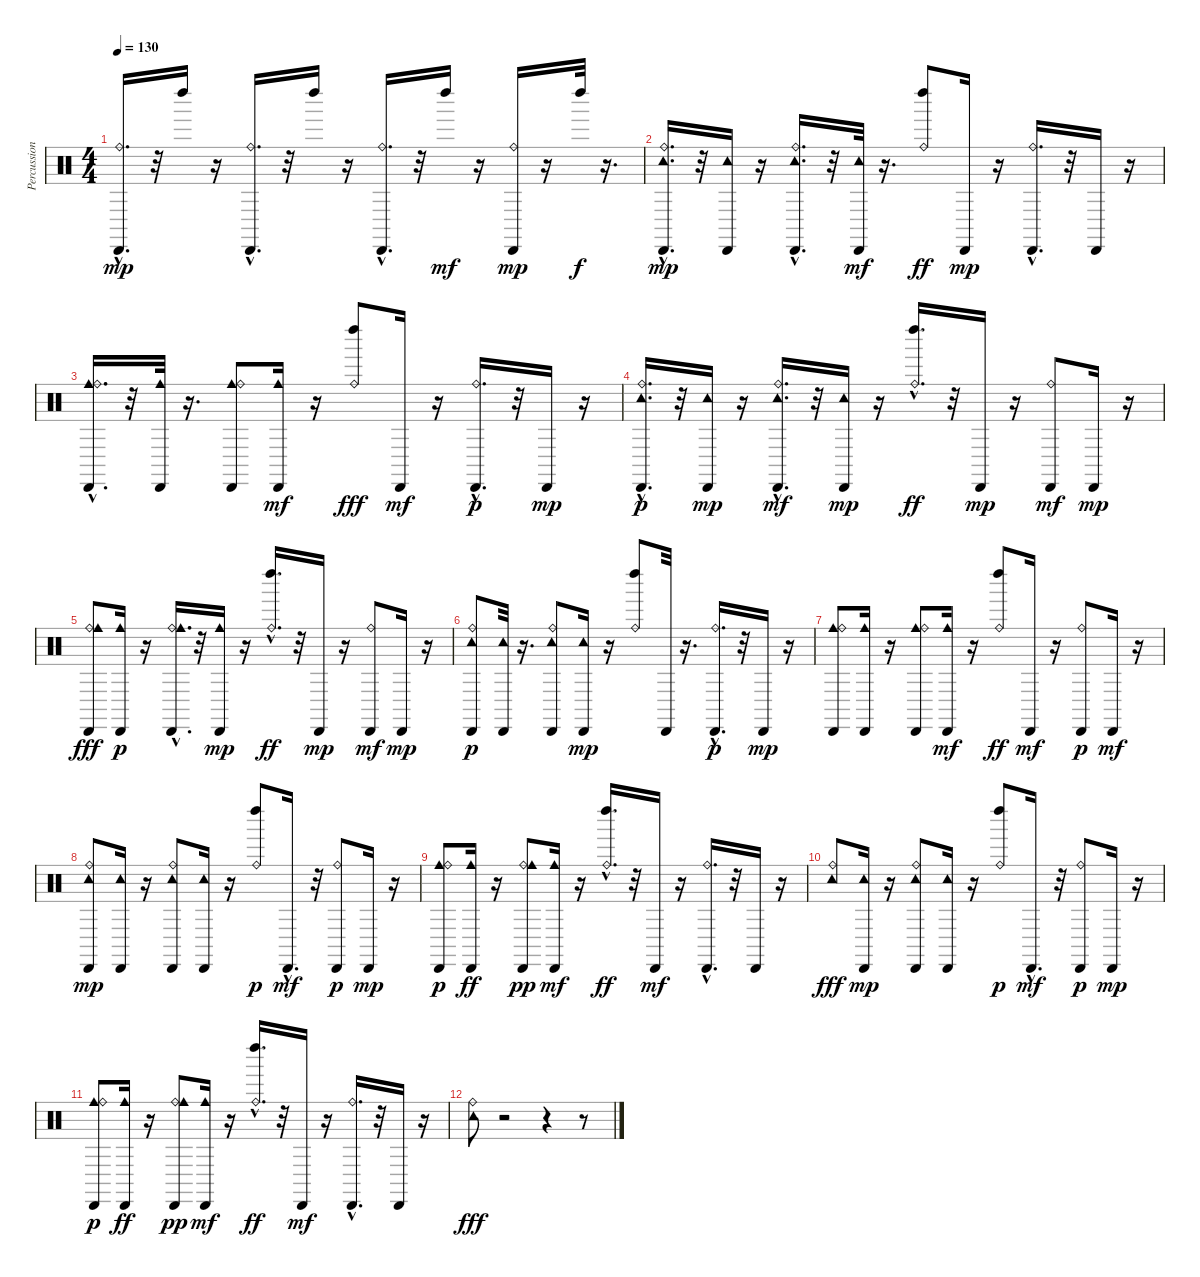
\track ("Percussion" "Percussion") {instrument percussion}
\staff {score}
\articulation defaults
\ts (4 4)
\tempo 130
\clef neutral
\ks c
("Cabasa (hit)" "Ride (bell)"{hac}).16{d dy mp} r.32 "Left Maraca (hit)".16 r.16 ("Cabasa (hit)" "Ride (bell)"{hac}).16{d} r.32 "Left Maraca (hit)".16 r.16 ("Cabasa (hit)" "Ride (bell)"{hac}).16{d} r.32 "Left Maraca (hit)".16{dy mf} r.16 ("Cabasa (hit)" "Ride (bell)").16{dy mp} r.16 "Left Maraca (hit)".32{dy f} r.16{d} |
("Tambourine (hit)" "Cabasa (hit)" "Ride (bell)"{hac}).16{d dy mp} r.32 ("Tambourine (hit)" "Cabasa (hit)").16 r.16 ("Tambourine (hit)" "Cabasa (hit)" "Ride (bell)"{hac}).16{d} r.32 ("Tambourine (hit)" "Cabasa (hit)").32{dy mf} r.16{d} ("Ride (bell)" "Left Maraca (hit)").8{dy ff} "Cabasa (hit)".16{dy mp} r.16 ("Ride (bell)"{hac} "Cabasa (hit)").16{d} r.32 "Cabasa (hit)".16 r.16 |
("Cowbell medium (hit)" "Cabasa (hit)" "Ride (bell)"{hac}).16{d} r.32 ("Cowbell medium (hit)" "Cabasa (hit)").32 r.16{d} ("Cowbell medium (hit)" "Cabasa (hit)" "Ride (bell)").8 ("Cowbell medium (hit)" "Cabasa (hit)").16{dy mf} r.16 ("Ride (bell)" "Left Maraca (hit)").8{dy fff} "Cabasa (hit)".16{dy mf} r.16 ("Cabasa (hit)" "Ride (bell)"{hac}).16{d dy p} r.32 "Cabasa (hit)".16{dy mp} r.16 |
("Tambourine (hit)" "Cabasa (hit)" "Ride (bell)"{hac}).16{d dy p} r.32 ("Tambourine (hit)" "Cabasa (hit)").16{dy mp} r.16 ("Ride (bell)"{hac} "Tambourine (hit)" "Cabasa (hit)").16{d dy mf} r.32 ("Tambourine (hit)" "Cabasa (hit)").16{dy mp} r.16 ("Ride (bell)"{hac} "Left Maraca (hit)").16{d dy ff} r.32 "Cabasa (hit)".16{dy mp} r.16 ("Ride (bell)" "Cabasa (hit)").8{dy mf} "Cabasa (hit)".16{dy mp} r.16 |
("Ride (bell)" "Cowbell medium (hit)" "Cabasa (hit)").8{dy fff} ("Cabasa (hit)" "Cowbell medium (hit)").16{dy p} r.16 ("Ride (bell)"{hac} "Cabasa (hit)" "Cowbell medium (hit)").16{d} r.32 ("Cowbell medium (hit)" "Cabasa (hit)").16{dy mp} r.16 ("Ride (bell)"{hac} "Left Maraca (hit)").16{d dy ff} r.32 "Cabasa (hit)".16{dy mp} r.16 ("Ride (bell)" "Cabasa (hit)").8{dy mf} "Cabasa (hit)".16{dy mp} r.16 |
("Tambourine (hit)" "Cabasa (hit)" "Ride (bell)").8{dy p} ("Tambourine (hit)" "Cabasa (hit)").32 r.16{d} ("Cabasa (hit)" "Tambourine (hit)" "Ride (bell)").8 ("Cabasa (hit)" "Tambourine (hit)").16{dy mp} r.16 ("Left Maraca (hit)" "Ride (bell)").8 "Cabasa (hit)".32 r.16{d} ("Cabasa (hit)" "Ride (bell)"{hac}).16{d dy p} r.32 "Cabasa (hit)".16{dy mp} r.16 |
("Cowbell medium (hit)" "Ride (bell)" "Cabasa (hit)").8 ("Cabasa (hit)" "Cowbell medium (hit)").16 r.16 ("Cabasa (hit)" "Cowbell medium (hit)" "Ride (bell)").8 ("Cowbell medium (hit)" "Cabasa (hit)").16{dy mf} r.16 ("Ride (bell)" "Left Maraca (hit)").8{dy ff} "Cabasa (hit)".16{dy mf} r.16 ("Cabasa (hit)" "Ride (bell)").8{dy p} "Cabasa (hit)".16{dy mf} r.16 |
("Tambourine (hit)" "Cabasa (hit)" "Ride (bell)").8{dy mp} ("Cabasa (hit)" "Tambourine (hit)").16 r.16 ("Cabasa (hit)" "Tambourine (hit)" "Ride (bell)").8 ("Tambourine (hit)" "Cabasa (hit)").16 r.16 ("Left Maraca (hit)" "Ride (bell)").8{dy p} "Cabasa (hit)"{hac}.16{d dy mf} r.32 ("Cabasa (hit)" "Ride (bell)").8{dy p} "Cabasa (hit)".16{dy mp} r.16 |
("Cowbell medium (hit)" "Cabasa (hit)" "Ride (bell)").8{dy p} ("Cabasa (hit)" "Cowbell medium (hit)").16{dy ff} r.16 ("Cabasa (hit)" "Ride (bell)" "Cowbell medium (hit)").8{dy pp} ("Cowbell medium (hit)" "Cabasa (hit)").16{dy mf} r.16 ("Ride (bell)"{hac} "Left Maraca (hit)").16{d dy ff} r.32 "Cabasa (hit)".16{dy mf} r.16 ("Ride (bell)"{hac} "Cabasa (hit)").16{d} r.32 "Cabasa (hit)".16 r.16 |
("Ride (bell)" "Tambourine (hit)").8{dy fff} ("Cabasa (hit)" "Tambourine (hit)").16{dy mp} r.16 ("Cabasa (hit)" "Tambourine (hit)" "Ride (bell)").8 ("Tambourine (hit)" "Cabasa (hit)").16 r.16 ("Left Maraca (hit)" "Ride (bell)").8{dy p} "Cabasa (hit)"{hac}.16{d dy mf} r.32 ("Cabasa (hit)" "Ride (bell)").8{dy p} "Cabasa (hit)".16{dy mp} r.16 |
("Cowbell medium (hit)" "Cabasa (hit)" "Ride (bell)").8{dy p} ("Cabasa (hit)" "Cowbell medium (hit)").16{dy ff} r.16 ("Cabasa (hit)" "Ride (bell)" "Cowbell medium (hit)").8{dy pp} ("Cowbell medium (hit)" "Cabasa (hit)").16{dy mf} r.16 ("Ride (bell)"{hac} "Left Maraca (hit)").16{d dy ff} r.32 "Cabasa (hit)".16{dy mf} r.16 ("Ride (bell)"{hac} "Cabasa (hit)").16{d} r.32 "Cabasa (hit)".16 r.16 |
("Ride (bell)" "Tambourine (hit)").8{dy fff} r.2 r.4 r.8
